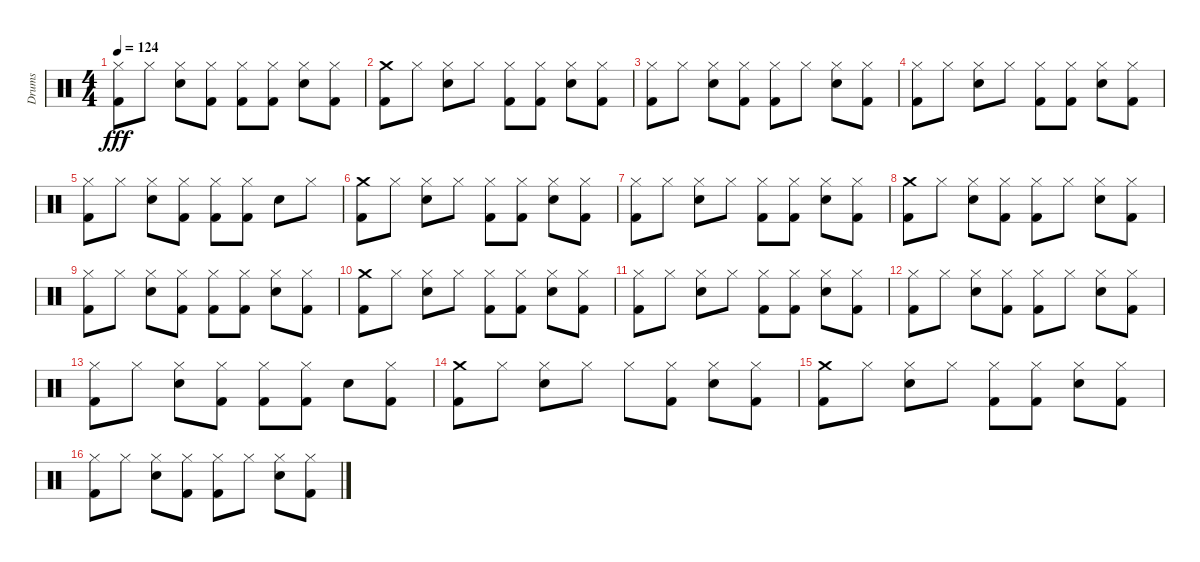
\track ("Drums" "Drums") {instrument percussion}
\staff {score}
\articulation defaults
\ts (4 4)
\tempo 124
\clef neutral
\ks c
("Hi-Hat (closed)" "Kick (hit) 2").8{dy fff} "Hi-Hat (closed)".8 ("Hi-Hat (closed)" "Snare (hit) 2").8 ("Hi-Hat (closed)" "Kick (hit) 2").8 ("Hi-Hat (closed)" "Kick (hit) 2").8 ("Hi-Hat (closed)" "Kick (hit) 2").8 ("Hi-Hat (closed)" "Snare (hit) 2").8 ("Hi-Hat (closed)" "Kick (hit) 2").8 |
("Crash medium (hit)" "Kick (hit) 2").8 "Hi-Hat (closed)".8 ("Hi-Hat (closed)" "Snare (hit) 2").8 "Hi-Hat (closed)".8 ("Hi-Hat (closed)" "Kick (hit) 2").8 ("Hi-Hat (closed)" "Kick (hit) 2").8 ("Hi-Hat (closed)" "Snare (hit) 2").8 ("Hi-Hat (closed)" "Kick (hit) 2").8 |
("Hi-Hat (closed)" "Kick (hit) 2").8 "Hi-Hat (closed)".8 ("Hi-Hat (closed)" "Snare (hit) 2").8 ("Hi-Hat (closed)" "Kick (hit) 2").8 ("Hi-Hat (closed)" "Kick (hit) 2").8 "Hi-Hat (closed)".8 ("Hi-Hat (closed)" "Snare (hit) 2").8 ("Hi-Hat (closed)" "Kick (hit) 2").8 |
("Hi-Hat (closed)" "Kick (hit) 2").8 "Hi-Hat (closed)".8 ("Hi-Hat (closed)" "Snare (hit) 2").8 "Hi-Hat (closed)".8 ("Hi-Hat (closed)" "Kick (hit) 2").8 ("Hi-Hat (closed)" "Kick (hit) 2").8 ("Hi-Hat (closed)" "Snare (hit) 2").8 ("Hi-Hat (closed)" "Kick (hit) 2").8 |
("Hi-Hat (closed)" "Kick (hit) 2").8 "Hi-Hat (closed)".8 ("Hi-Hat (closed)" "Snare (hit) 2").8 ("Hi-Hat (closed)" "Kick (hit) 2").8 ("Hi-Hat (closed)" "Kick (hit) 2").8 ("Hi-Hat (closed)" "Kick (hit) 2").8 "Snare (hit) 2".8 "Hi-Hat (closed)".8 |
("Crash medium (hit)" "Kick (hit) 2").8 "Hi-Hat (closed)".8 ("Hi-Hat (closed)" "Snare (hit) 2").8 "Hi-Hat (closed)".8 ("Hi-Hat (closed)" "Kick (hit) 2").8 ("Hi-Hat (closed)" "Kick (hit) 2").8 ("Hi-Hat (closed)" "Snare (hit) 2").8 ("Hi-Hat (closed)" "Kick (hit) 2").8 |
("Hi-Hat (closed)" "Kick (hit) 2").8 "Hi-Hat (closed)".8 ("Hi-Hat (closed)" "Snare (hit) 2").8 "Hi-Hat (closed)".8 ("Hi-Hat (closed)" "Kick (hit) 2").8 ("Hi-Hat (closed)" "Kick (hit) 2").8 ("Hi-Hat (closed)" "Snare (hit) 2").8 ("Hi-Hat (closed)" "Kick (hit) 2").8 |
("Crash medium (hit)" "Kick (hit) 2").8 "Hi-Hat (closed)".8 ("Hi-Hat (closed)" "Snare (hit) 2").8 ("Hi-Hat (closed)" "Kick (hit) 2").8 ("Hi-Hat (closed)" "Kick (hit) 2").8 "Hi-Hat (closed)".8 ("Hi-Hat (closed)" "Snare (hit) 2").8 ("Hi-Hat (closed)" "Kick (hit) 2").8 |
("Hi-Hat (closed)" "Kick (hit) 2").8 "Hi-Hat (closed)".8 ("Hi-Hat (closed)" "Snare (hit) 2").8 ("Hi-Hat (closed)" "Kick (hit) 2").8 ("Hi-Hat (closed)" "Kick (hit) 2").8 ("Hi-Hat (closed)" "Kick (hit) 2").8 ("Hi-Hat (closed)" "Snare (hit) 2").8 ("Hi-Hat (closed)" "Kick (hit) 2").8 |
("Crash medium (hit)" "Kick (hit) 2").8 "Hi-Hat (closed)".8 ("Hi-Hat (closed)" "Snare (hit) 2").8 "Hi-Hat (closed)".8 ("Hi-Hat (closed)" "Kick (hit) 2").8 ("Hi-Hat (closed)" "Kick (hit) 2").8 ("Hi-Hat (closed)" "Snare (hit) 2").8 ("Hi-Hat (closed)" "Kick (hit) 2").8 |
("Hi-Hat (closed)" "Kick (hit) 2").8 "Hi-Hat (closed)".8 ("Hi-Hat (closed)" "Snare (hit) 2").8 "Hi-Hat (closed)".8 ("Hi-Hat (closed)" "Kick (hit) 2").8 ("Hi-Hat (closed)" "Kick (hit) 2").8 ("Hi-Hat (closed)" "Snare (hit) 2").8 ("Hi-Hat (closed)" "Kick (hit) 2").8 |
("Hi-Hat (closed)" "Kick (hit) 2").8 "Hi-Hat (closed)".8 ("Hi-Hat (closed)" "Snare (hit) 2").8 ("Hi-Hat (closed)" "Kick (hit) 2").8 ("Hi-Hat (closed)" "Kick (hit) 2").8 "Hi-Hat (closed)".8 ("Hi-Hat (closed)" "Snare (hit) 2").8 ("Hi-Hat (closed)" "Kick (hit) 2").8 |
("Hi-Hat (closed)" "Kick (hit) 2").8 "Hi-Hat (closed)".8 ("Hi-Hat (closed)" "Snare (hit) 2").8 ("Hi-Hat (closed)" "Kick (hit) 2").8 ("Hi-Hat (closed)" "Kick (hit) 2").8 ("Hi-Hat (closed)" "Kick (hit) 2").8 "Snare (hit) 2".8 ("Hi-Hat (closed)" "Kick (hit) 2").8 |
("Crash medium (hit)" "Kick (hit) 2").8 "Hi-Hat (closed)".8 ("Hi-Hat (closed)" "Snare (hit) 2").8 "Hi-Hat (closed)".8 "Hi-Hat (closed)".8 ("Hi-Hat (closed)" "Kick (hit) 2").8 ("Hi-Hat (closed)" "Snare (hit) 2").8 ("Hi-Hat (closed)" "Kick (hit) 2").8 |
("Crash medium (hit)" "Kick (hit) 2").8 "Hi-Hat (closed)".8 ("Hi-Hat (closed)" "Snare (hit) 2").8 "Hi-Hat (closed)".8 ("Hi-Hat (closed)" "Kick (hit) 2").8 ("Hi-Hat (closed)" "Kick (hit) 2").8 ("Hi-Hat (closed)" "Snare (hit) 2").8 ("Hi-Hat (closed)" "Kick (hit) 2").8 |
("Hi-Hat (closed)" "Kick (hit) 2").8 "Hi-Hat (closed)".8 ("Hi-Hat (closed)" "Snare (hit) 2").8 ("Hi-Hat (closed)" "Kick (hit) 2").8 ("Hi-Hat (closed)" "Kick (hit) 2").8 "Hi-Hat (closed)".8 ("Hi-Hat (closed)" "Snare (hit) 2").8 ("Hi-Hat (closed)" "Kick (hit) 2").8
